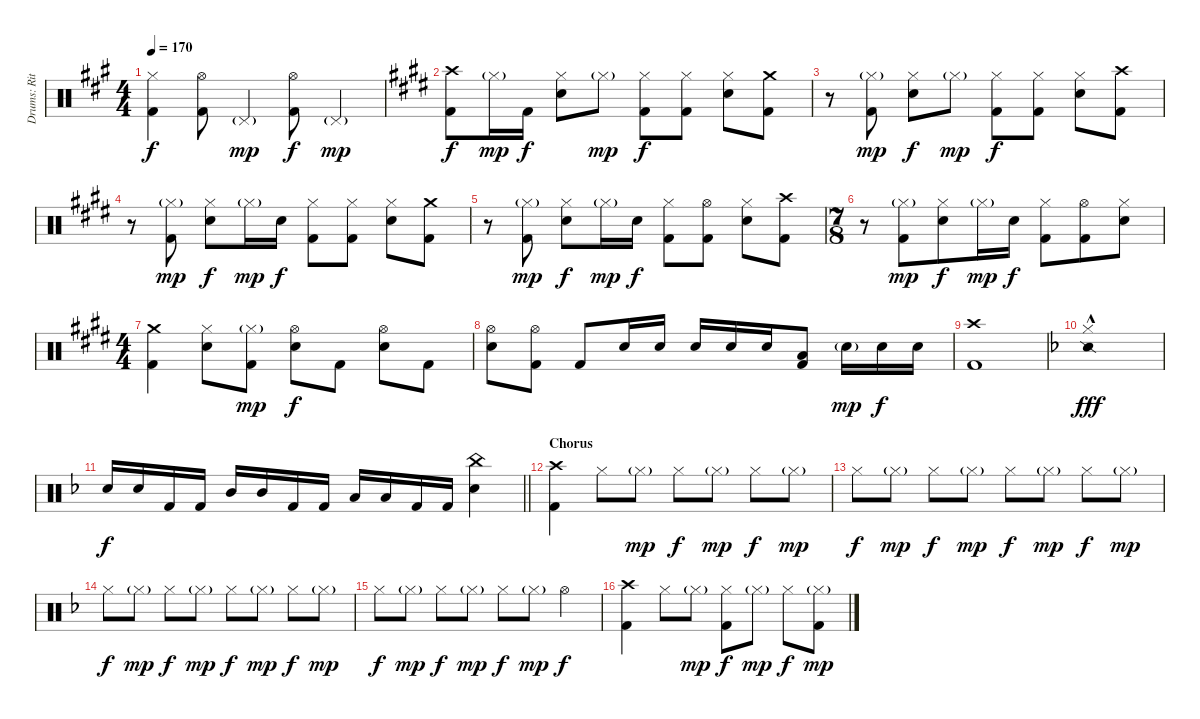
\track ("Drums: Ritsu Tainaka" "Drums: Rit") {instrument percussion}
\staff {score}
\articulation defaults
\ts (4 4)
\tempo 170
\clef neutral
\ks a
("Hi-Hat (closed)" "Kick (hit) 2").4{dy f} ("Hi-Hat (open)" "Kick (hit) 2").8 "Pedal Hi-Hat (hit)"{g}.4{dy mp} ("Hi-Hat (open)" "Kick (hit) 2").8{dy f} "Pedal Hi-Hat (hit)"{g}.4{dy mp} |
\ks e
("Crash high (hit)" "Kick (hit) 2").8{dy f} "Hi-Hat (closed)"{g}.16{dy mp} "Kick (hit) 2".16{dy f} ("Hi-Hat (closed)" "Electric Snare (hit)").8 "Hi-Hat (closed)"{g}.8{dy mp} ("Hi-Hat (closed)" "Kick (hit) 2").8{dy f} ("Hi-Hat (closed)" "Kick (hit) 2").8 ("Hi-Hat (closed)" "Electric Snare (hit)").8 ("Crash medium (hit)" "Kick (hit) 2").8 |
r.8 ("Hi-Hat (closed)"{g} "Kick (hit) 2").8{dy mp} ("Hi-Hat (closed)" "Electric Snare (hit)").8{dy f} "Hi-Hat (closed)"{g}.8{dy mp} ("Hi-Hat (closed)" "Kick (hit) 2").8{dy f} ("Hi-Hat (closed)" "Kick (hit) 2").8 ("Hi-Hat (closed)" "Electric Snare (hit)").8 ("Crash high (hit)" "Kick (hit) 2").8 |
r.8 ("Hi-Hat (closed)"{g} "Kick (hit) 2").8{dy mp} ("Hi-Hat (closed)" "Electric Snare (hit)").8{dy f} "Hi-Hat (closed)"{g}.16{dy mp} "Electric Snare (hit)".16{dy f} ("Hi-Hat (closed)" "Kick (hit) 2").8 ("Hi-Hat (closed)" "Kick (hit) 2").8 ("Hi-Hat (closed)" "Electric Snare (hit)").8 ("Crash medium (hit)" "Kick (hit) 2").8 |
r.8 ("Hi-Hat (closed)"{g} "Kick (hit) 2").8{dy mp} ("Hi-Hat (closed)" "Electric Snare (hit)").8{dy f} "Hi-Hat (closed)"{g}.16{dy mp} "Electric Snare (hit)".16{dy f} ("Hi-Hat (closed)" "Kick (hit) 2").8 ("Hi-Hat (open)" "Kick (hit) 2").8 ("Hi-Hat (closed)" "Electric Snare (hit)").8 ("Crash high (hit)" "Kick (hit) 2").8 |
\ts (7 8)
r.8 ("Hi-Hat (closed)"{g} "Kick (hit) 2").8{dy mp} ("Hi-Hat (closed)" "Electric Snare (hit)").8{dy f} "Hi-Hat (closed)"{g}.16{dy mp} "Electric Snare (hit)".16{dy f} ("Hi-Hat (closed)" "Kick (hit) 2").8 ("Hi-Hat (open)" "Kick (hit) 2").8 ("Hi-Hat (closed)" "Electric Snare (hit)").8 |
\ts (4 4)
("Crash medium (hit)" "Kick (hit) 2").4 ("Hi-Hat (closed)" "Electric Snare (hit)").8 ("Hi-Hat (closed)"{g} "Kick (hit) 2").8{dy mp} ("Hi-Hat (open)" "Electric Snare (hit)").8{dy f} "Kick (hit) 2".8 ("Hi-Hat (open)" "Electric Snare (hit)").8 "Kick (hit) 2".8 |
("Hi-Hat (open)" "Electric Snare (hit)").8 ("Hi-Hat (open)" "Kick (hit) 2").8 "Kick (hit) 2".8 "Electric Snare (hit)".16 "Electric Snare (hit)".16 "Electric Snare (hit)".16 "Electric Snare (hit)".16 "Electric Snare (hit)".16 ("Low Tom (hit)" "Kick (hit) 2").8 "Electric Snare (hit)"{g}.16{dy mp} "Electric Snare (hit)".16{dy f} "Electric Snare (hit)".16 |
("Crash high (hit)" "Kick (hit) 2").1 |
\ks f
("Snare (side stick) 2"{hac} "Hi-Hat (closed)"{hac}).1{dy fff} |
\barLineRight lightlight "Electric Snare (hit)".16{dy f} "Electric Snare (hit)".16 "Kick (hit) 2".16 "Kick (hit) 2".16 "Mid Tom (hit)".16 "Mid Tom (hit)".16 "Kick (hit) 2".16 "Kick (hit) 2".16 "Low Tom (hit)".16 "Low Tom (hit)".16 "Kick (hit) 2".16 "Kick (hit) 2".16
("China (hit)" "Electric Snare (hit)").4 |
\section ("" "Chorus")
("Crash high (hit)" "Kick (hit) 2").4 "Hi-Hat (closed)".8 "Hi-Hat (closed)"{g}.8{dy mp} "Hi-Hat (closed)".8{dy f} "Hi-Hat (closed)"{g}.8{dy mp} "Hi-Hat (closed)".8{dy f} "Hi-Hat (closed)"{g}.8{dy mp} |
"Hi-Hat (closed)".8{dy f} "Hi-Hat (closed)"{g}.8{dy mp} "Hi-Hat (closed)".8{dy f} "Hi-Hat (closed)"{g}.8{dy mp} "Hi-Hat (closed)".8{dy f} "Hi-Hat (closed)"{g}.8{dy mp} "Hi-Hat (closed)".8{dy f} "Hi-Hat (closed)"{g}.8{dy mp} |
"Hi-Hat (closed)".8{dy f} "Hi-Hat (closed)"{g}.8{dy mp} "Hi-Hat (closed)".8{dy f} "Hi-Hat (closed)"{g}.8{dy mp} "Hi-Hat (closed)".8{dy f} "Hi-Hat (closed)"{g}.8{dy mp} "Hi-Hat (closed)".8{dy f} "Hi-Hat (closed)"{g}.8{dy mp} |
"Hi-Hat (closed)".8{dy f} "Hi-Hat (closed)"{g}.8{dy mp} "Hi-Hat (closed)".8{dy f} "Hi-Hat (closed)"{g}.8{dy mp} "Hi-Hat (closed)".8{dy f} "Hi-Hat (closed)"{g}.8{dy mp} "Hi-Hat (open)".4{dy f} |
("Crash high (hit)" "Kick (hit) 2").4 "Hi-Hat (closed)".8 "Hi-Hat (closed)"{g}.8{dy mp} ("Hi-Hat (closed)" "Kick (hit) 2").8{dy f} "Hi-Hat (closed)"{g}.8{dy mp} "Hi-Hat (closed)".8{dy f} ("Hi-Hat (closed)"{g} "Kick (hit) 2").8{dy mp}
